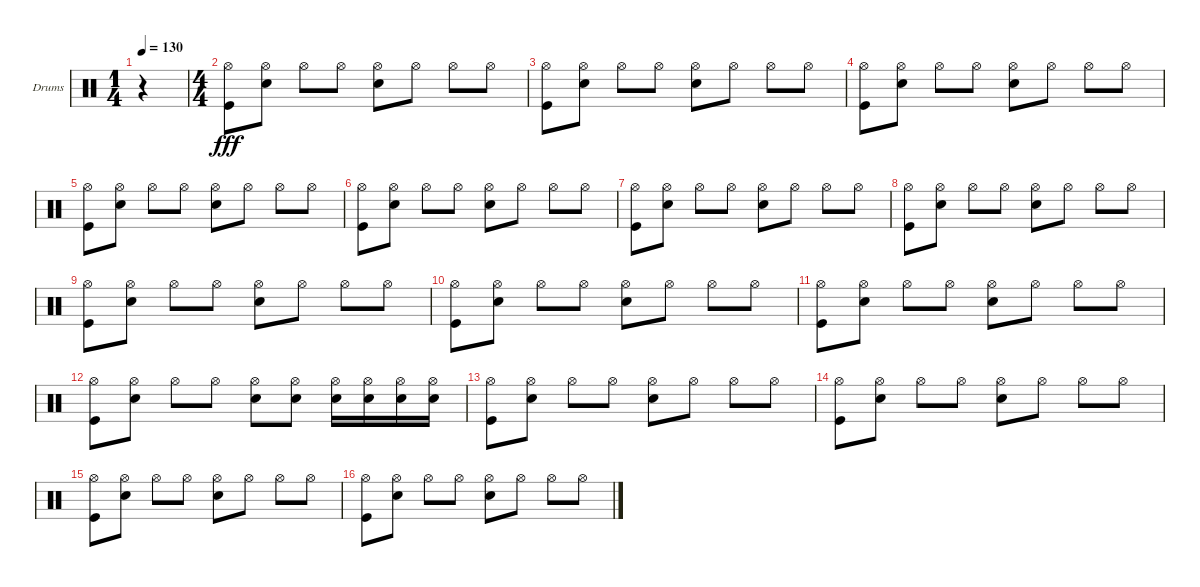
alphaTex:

\bracketExtendMode groupsimilarinstruments
\firstSystemTrackNameOrientation horizontal
\otherSystemsTrackNameOrientation horizontal
\track ("Drumkit" "Drums") {instrument percussion}
\staff {score}
\articulation defaults
\ts (1 4)
\tempo 130
\clef neutral
\ks c
r.4{dy fff} |
\ts (4 4)
("Hi-Hat (open)" "Kick (hit)").8 ("Hi-Hat (open)" "Snare (hit) 2").8 "Hi-Hat (open)".8 "Hi-Hat (open)".8 ("Hi-Hat (open)" "Snare (hit) 2").8 "Hi-Hat (open)".8 "Hi-Hat (open)".8 "Hi-Hat (open)".8 |
("Hi-Hat (open)" "Kick (hit)").8 ("Hi-Hat (open)" "Snare (hit) 2").8 "Hi-Hat (open)".8 "Hi-Hat (open)".8 ("Hi-Hat (open)" "Snare (hit) 2").8 "Hi-Hat (open)".8 "Hi-Hat (open)".8 "Hi-Hat (open)".8 |
("Hi-Hat (open)" "Kick (hit)").8 ("Hi-Hat (open)" "Snare (hit) 2").8 "Hi-Hat (open)".8 "Hi-Hat (open)".8 ("Hi-Hat (open)" "Snare (hit) 2").8 "Hi-Hat (open)".8 "Hi-Hat (open)".8 "Hi-Hat (open)".8 |
("Hi-Hat (open)" "Kick (hit)").8 ("Hi-Hat (open)" "Snare (hit) 2").8 "Hi-Hat (open)".8 "Hi-Hat (open)".8 ("Hi-Hat (open)" "Snare (hit) 2").8 "Hi-Hat (open)".8 "Hi-Hat (open)".8 "Hi-Hat (open)".8 |
("Hi-Hat (open)" "Kick (hit)").8 ("Hi-Hat (open)" "Snare (hit) 2").8 "Hi-Hat (open)".8 "Hi-Hat (open)".8 ("Hi-Hat (open)" "Snare (hit) 2").8 "Hi-Hat (open)".8 "Hi-Hat (open)".8 "Hi-Hat (open)".8 |
("Hi-Hat (open)" "Kick (hit)").8 ("Hi-Hat (open)" "Snare (hit) 2").8 "Hi-Hat (open)".8 "Hi-Hat (open)".8 ("Hi-Hat (open)" "Snare (hit) 2").8 "Hi-Hat (open)".8 "Hi-Hat (open)".8 "Hi-Hat (open)".8 |
("Hi-Hat (open)" "Kick (hit)").8 ("Hi-Hat (open)" "Snare (hit) 2").8 "Hi-Hat (open)".8 "Hi-Hat (open)".8 ("Hi-Hat (open)" "Snare (hit) 2").8 "Hi-Hat (open)".8 "Hi-Hat (open)".8 "Hi-Hat (open)".8 |
("Hi-Hat (open)" "Kick (hit)").8 ("Hi-Hat (open)" "Snare (hit) 2").8 "Hi-Hat (open)".8 "Hi-Hat (open)".8 ("Hi-Hat (open)" "Snare (hit) 2").8 "Hi-Hat (open)".8 "Hi-Hat (open)".8 "Hi-Hat (open)".8 |
("Hi-Hat (open)" "Kick (hit)").8 ("Hi-Hat (open)" "Snare (hit) 2").8 "Hi-Hat (open)".8 "Hi-Hat (open)".8 ("Hi-Hat (open)" "Snare (hit) 2").8 "Hi-Hat (open)".8 "Hi-Hat (open)".8 "Hi-Hat (open)".8 |
("Hi-Hat (open)" "Kick (hit)").8 ("Hi-Hat (open)" "Snare (hit) 2").8 "Hi-Hat (open)".8 "Hi-Hat (open)".8 ("Hi-Hat (open)" "Snare (hit) 2").8 "Hi-Hat (open)".8 "Hi-Hat (open)".8 "Hi-Hat (open)".8 |
("Hi-Hat (open)" "Kick (hit)").8 ("Hi-Hat (open)" "Snare (hit) 2").8 "Hi-Hat (open)".8 "Hi-Hat (open)".8 ("Hi-Hat (open)" "Snare (hit) 2").8 ("Hi-Hat (open)" "Snare (hit) 2").8 ("Hi-Hat (open)" "Snare (hit) 2").16 ("Hi-Hat (open)" "Snare (hit) 2").16 ("Hi-Hat (open)" "Snare (hit) 2").16 ("Hi-Hat (open)" "Snare (hit) 2").16 |
("Hi-Hat (open)" "Kick (hit)").8 ("Hi-Hat (open)" "Snare (hit) 2").8 "Hi-Hat (open)".8 "Hi-Hat (open)".8 ("Hi-Hat (open)" "Snare (hit) 2").8 "Hi-Hat (open)".8 "Hi-Hat (open)".8 "Hi-Hat (open)".8 |
("Hi-Hat (open)" "Kick (hit)").8 ("Hi-Hat (open)" "Snare (hit) 2").8 "Hi-Hat (open)".8 "Hi-Hat (open)".8 ("Hi-Hat (open)" "Snare (hit) 2").8 "Hi-Hat (open)".8 "Hi-Hat (open)".8 "Hi-Hat (open)".8 |
("Hi-Hat (open)" "Kick (hit)").8 ("Hi-Hat (open)" "Snare (hit) 2").8 "Hi-Hat (open)".8 "Hi-Hat (open)".8 ("Hi-Hat (open)" "Snare (hit) 2").8 "Hi-Hat (open)".8 "Hi-Hat (open)".8 "Hi-Hat (open)".8 |
("Hi-Hat (open)" "Kick (hit)").8 ("Hi-Hat (open)" "Snare (hit) 2").8 "Hi-Hat (open)".8 "Hi-Hat (open)".8 ("Hi-Hat (open)" "Snare (hit) 2").8 "Hi-Hat (open)".8 "Hi-Hat (open)".8 "Hi-Hat (open)".8
